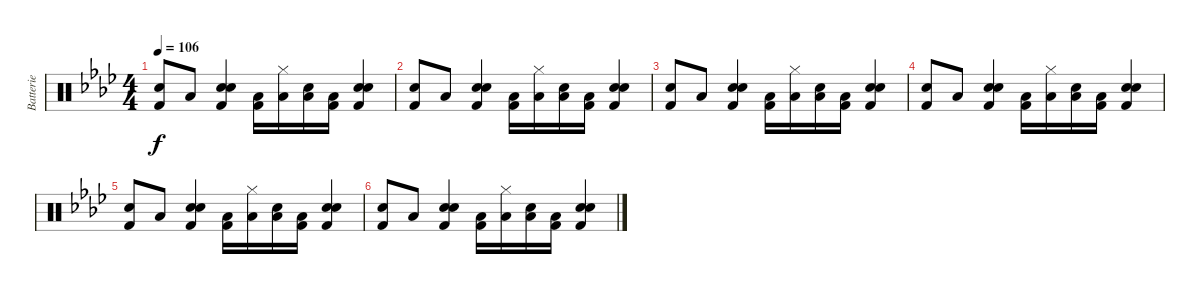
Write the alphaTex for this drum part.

\track ("Batterie" "Batterie") {instrument percussion}
\staff {score}
\articulation defaults
\ts (4 4)
\tempo 106
\clef neutral
\ks ab
("Kick (hit) 2" "Electric Snare (hit)").8{dy f} "Low Floor Tom (hit)".8 ("Snare (hit) 2" "Kick (hit) 2" "Electric Snare (hit)").4 ("Kick (hit) 2" "Low Floor Tom (hit)").16 ("Low Floor Tom (hit)" "Hi-Hat (closed)").16 ("Low Floor Tom (hit)" "Electric Snare (hit)").16 ("Kick (hit) 2" "Low Floor Tom (hit)").16 ("Snare (hit) 2" "Kick (hit) 2" "Electric Snare (hit)").4 |
("Kick (hit) 2" "Electric Snare (hit)").8 "Low Floor Tom (hit)".8 ("Snare (hit) 2" "Kick (hit) 2" "Electric Snare (hit)").4 ("Kick (hit) 2" "Low Floor Tom (hit)").16 ("Low Floor Tom (hit)" "Hi-Hat (closed)").16 ("Low Floor Tom (hit)" "Electric Snare (hit)").16 ("Kick (hit) 2" "Low Floor Tom (hit)").16 ("Snare (hit) 2" "Kick (hit) 2" "Electric Snare (hit)").4 |
("Kick (hit) 2" "Electric Snare (hit)").8 "Low Floor Tom (hit)".8 ("Snare (hit) 2" "Kick (hit) 2" "Electric Snare (hit)").4 ("Kick (hit) 2" "Low Floor Tom (hit)").16 ("Low Floor Tom (hit)" "Hi-Hat (closed)").16 ("Low Floor Tom (hit)" "Electric Snare (hit)").16 ("Kick (hit) 2" "Low Floor Tom (hit)").16 ("Snare (hit) 2" "Kick (hit) 2" "Electric Snare (hit)").4 |
("Kick (hit) 2" "Electric Snare (hit)").8 "Low Floor Tom (hit)".8 ("Snare (hit) 2" "Kick (hit) 2" "Electric Snare (hit)").4 ("Kick (hit) 2" "Low Floor Tom (hit)").16 ("Low Floor Tom (hit)" "Hi-Hat (closed)").16 ("Low Floor Tom (hit)" "Electric Snare (hit)").16 ("Kick (hit) 2" "Low Floor Tom (hit)").16 ("Snare (hit) 2" "Kick (hit) 2" "Electric Snare (hit)").4 |
("Kick (hit) 2" "Electric Snare (hit)").8 "Low Floor Tom (hit)".8 ("Snare (hit) 2" "Kick (hit) 2" "Electric Snare (hit)").4 ("Kick (hit) 2" "Low Floor Tom (hit)").16 ("Low Floor Tom (hit)" "Hi-Hat (closed)").16 ("Low Floor Tom (hit)" "Electric Snare (hit)").16 ("Kick (hit) 2" "Low Floor Tom (hit)").16 ("Snare (hit) 2" "Kick (hit) 2" "Electric Snare (hit)").4 |
("Kick (hit) 2" "Electric Snare (hit)").8 "Low Floor Tom (hit)".8 ("Snare (hit) 2" "Kick (hit) 2" "Electric Snare (hit)").4 ("Kick (hit) 2" "Low Floor Tom (hit)").16 ("Low Floor Tom (hit)" "Hi-Hat (closed)").16 ("Low Floor Tom (hit)" "Electric Snare (hit)").16 ("Kick (hit) 2" "Low Floor Tom (hit)").16 ("Snare (hit) 2" "Kick (hit) 2" "Electric Snare (hit)").4
